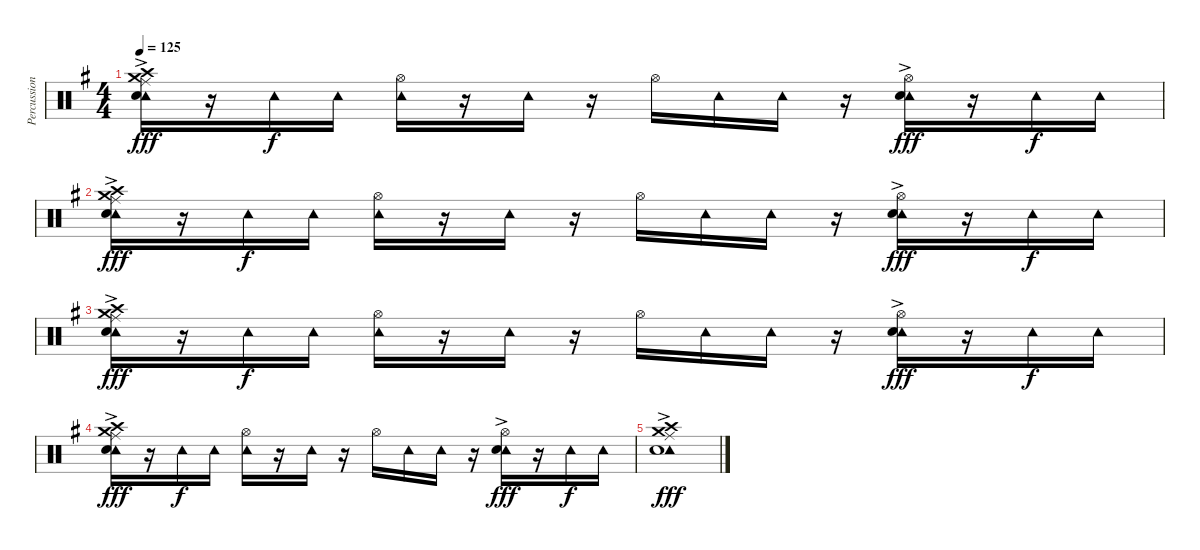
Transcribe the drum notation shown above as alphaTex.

\track ("Percussion" "Percussion") {instrument percussion}
\staff {score}
\articulation defaults
\ts (4 4)
\tempo 125
\clef neutral
\ks g
("Ride (middle)"{ac} "Crash medium (hit)" "Tambourine (hit)" "Snare (hit) 2" "Crash high (hit)").16{dy fff} r.16 "Tambourine (hit)".16{dy f} "Tambourine (hit)".16 ("Hi-Hat (open)" "Tambourine (hit)").16 r.16 "Tambourine (hit)".16 r.16 "Hi-Hat (open)".16 "Tambourine (hit)".16 "Tambourine (hit)".16 r.16 ("Hi-Hat (open)"{ac} "Tambourine (hit)" "Snare (hit) 2").16{dy fff} r.16 "Tambourine (hit)".16{dy f} "Tambourine (hit)".16 |
("Ride (middle)"{ac} "Crash medium (hit)" "Tambourine (hit)" "Snare (hit) 2" "Crash high (hit)").16{dy fff} r.16 "Tambourine (hit)".16{dy f} "Tambourine (hit)".16 ("Hi-Hat (open)" "Tambourine (hit)").16 r.16 "Tambourine (hit)".16 r.16 "Hi-Hat (open)".16 "Tambourine (hit)".16 "Tambourine (hit)".16 r.16 ("Hi-Hat (open)"{ac} "Tambourine (hit)" "Snare (hit) 2").16{dy fff} r.16 "Tambourine (hit)".16{dy f} "Tambourine (hit)".16 |
("Ride (middle)"{ac} "Crash medium (hit)" "Tambourine (hit)" "Snare (hit) 2" "Crash high (hit)").16{dy fff} r.16 "Tambourine (hit)".16{dy f} "Tambourine (hit)".16 ("Hi-Hat (open)" "Tambourine (hit)").16 r.16 "Tambourine (hit)".16 r.16 "Hi-Hat (open)".16 "Tambourine (hit)".16 "Tambourine (hit)".16 r.16 ("Hi-Hat (open)"{ac} "Tambourine (hit)" "Snare (hit) 2").16{dy fff} r.16 "Tambourine (hit)".16{dy f} "Tambourine (hit)".16 |
("Ride (middle)"{ac} "Crash medium (hit)" "Tambourine (hit)" "Snare (hit) 2" "Crash high (hit)").16{dy fff} r.16 "Tambourine (hit)".16{dy f} "Tambourine (hit)".16 ("Hi-Hat (open)" "Tambourine (hit)").16 r.16 "Tambourine (hit)".16 r.16 "Hi-Hat (open)".16 "Tambourine (hit)".16 "Tambourine (hit)".16 r.16 ("Hi-Hat (open)"{ac} "Tambourine (hit)" "Snare (hit) 2").16{dy fff} r.16 "Tambourine (hit)".16{dy f} "Tambourine (hit)".16 |
("Ride (middle)"{ac} "Crash medium (hit)" "Tambourine (hit)" "Snare (hit) 2" "Crash high (hit)").1{dy fff}
